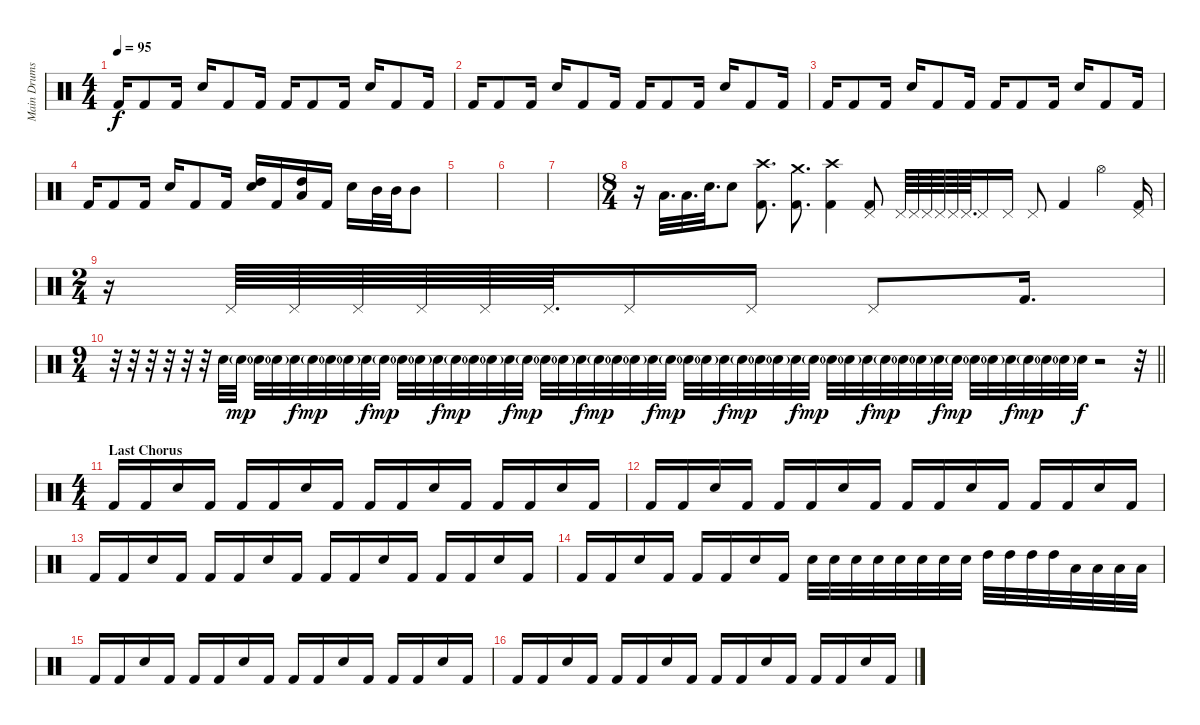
\track ("Main Drums" "Main Drums") {instrument percussion}
\staff {score}
\articulation defaults
\ts (4 4)
\tempo 95
\clef neutral
\ks c "Kick (hit) 2".16{dy f} "Kick (hit) 2".8 "Kick (hit) 2".16 "Snare (hit) 2".16 "Kick (hit) 2".8 "Kick (hit) 2".16 "Kick (hit) 2".16 "Kick (hit) 2".8 "Kick (hit) 2".16 "Snare (hit) 2".16 "Kick (hit) 2".8 "Kick (hit) 2".16
|
"Kick (hit) 2".16 "Kick (hit) 2".8 "Kick (hit) 2".16 "Snare (hit) 2".16 "Kick (hit) 2".8 "Kick (hit) 2".16 "Kick (hit) 2".16 "Kick (hit) 2".8 "Kick (hit) 2".16 "Snare (hit) 2".16 "Kick (hit) 2".8 "Kick (hit) 2".16 |
"Kick (hit) 2".16 "Kick (hit) 2".8 "Kick (hit) 2".16 "Snare (hit) 2".16 "Kick (hit) 2".8 "Kick (hit) 2".16 "Kick (hit) 2".16 "Kick (hit) 2".8 "Kick (hit) 2".16 "Snare (hit) 2".16 "Kick (hit) 2".8 "Kick (hit) 2".16 |
"Kick (hit) 2".16 "Kick (hit) 2".8 "Kick (hit) 2".16 "Snare (hit) 2".16 "Kick (hit) 2".8 "Kick (hit) 2".16 ("High Tom (hit)" "Snare (hit) 2").16 "Kick (hit) 2".16 ("High Tom (hit)" "Low Tom (hit)").16 "Kick (hit) 2".16 "Snare (hit) 2".16 "Mid Tom (hit)".32 "Mid Tom (hit)".32 "Mid Tom (hit)".8 |
|
|
|
\ts (8 4)
r.16 "Low Floor Tom (hit)".32{d} "Low Floor Tom (hit)".32{d} "Snare (hit) 2".32{d} "Snare (hit) 2".8 ("Crash high (hit)" "Kick (hit) 2").8{d} ("Crash medium (hit)" "Kick (hit) 2").8{d} ("Crash high (hit)" "Kick (hit) 2").4 ("Kick (hit) 2" "Pedal Hi-Hat (hit)").8 "Pedal Hi-Hat (hit)".64 "Pedal Hi-Hat (hit)".64 "Pedal Hi-Hat (hit)".64 "Pedal Hi-Hat (hit)".64 "Pedal Hi-Hat (hit)".64 "Pedal Hi-Hat (hit)".64{d} "Pedal Hi-Hat (hit)".16 "Pedal Hi-Hat (hit)".16 "Pedal Hi-Hat (hit)".8 "Kick (hit) 2".4 "Hi-Hat (open)".4 ("Pedal Hi-Hat (hit)" "Kick (hit) 2").16 |
\ts (2 4)
r.16 "Pedal Hi-Hat (hit)".64 "Pedal Hi-Hat (hit)".64 "Pedal Hi-Hat (hit)".64 "Pedal Hi-Hat (hit)".64 "Pedal Hi-Hat (hit)".64 "Pedal Hi-Hat (hit)".64{d} "Pedal Hi-Hat (hit)".16 "Pedal Hi-Hat (hit)".16 "Pedal Hi-Hat (hit)".8 "Kick (hit) 2".16{d} |
\ts (9 4)
\barLineRight lightlight
r.32 r.32 r.32 r.32 r.32 r.32 "Snare (hit) 2".32 "Snare (hit) 2"{g}.32{dy mp} "Snare (hit) 2"{g}.32 "Snare (hit) 2"{g}.32 "Snare (hit) 2".32{dy f} "Snare (hit) 2"{g}.32{dy mp} "Snare (hit) 2"{g}.32 "Snare (hit) 2"{g}.32 "Snare (hit) 2".32{dy f} "Snare (hit) 2"{g}.32{dy mp} "Snare (hit) 2"{g}.32 "Snare (hit) 2"{g}.32 "Snare (hit) 2".32{dy f} "Snare (hit) 2"{g}.32{dy mp} "Snare (hit) 2"{g}.32 "Snare (hit) 2"{g}.32 "Snare (hit) 2".32{dy f} "Snare (hit) 2"{g}.32{dy mp} "Snare (hit) 2"{g}.32 "Snare (hit) 2"{g}.32 "Snare (hit) 2".32{dy f} "Snare (hit) 2"{g}.32{dy mp} "Snare (hit) 2"{g}.32 "Snare (hit) 2"{g}.32 "Snare (hit) 2".32{dy f} "Snare (hit) 2"{g}.32{dy mp} "Snare (hit) 2"{g}.32 "Snare (hit) 2"{g}.32 "Snare (hit) 2".32{dy f} "Snare (hit) 2"{g}.32{dy mp} "Snare (hit) 2"{g}.32 "Snare (hit) 2"{g}.32 "Snare (hit) 2".32{dy f} "Snare (hit) 2"{g}.32{dy mp} "Snare (hit) 2"{g}.32 "Snare (hit) 2"{g}.32 "Snare (hit) 2".32{dy f} "Snare (hit) 2"{g}.32{dy mp} "Snare (hit) 2"{g}.32 "Snare (hit) 2"{g}.32 "Snare (hit) 2".32{dy f} "Snare (hit) 2"{g}.32{dy mp} "Snare (hit) 2"{g}.32 "Snare (hit) 2"{g}.32 "Snare (hit) 2".32{dy f} "Snare (hit) 2"{g}.32{dy mp} "Snare (hit) 2"{g}.32 "Snare (hit) 2"{g}.32 "Snare (hit) 2".32{dy f} r.2 r.32 |
\ts (4 4)
\section ("" "Last Chorus")
"Kick (hit) 2".16 "Kick (hit) 2".16 "Snare (hit) 2".16 "Kick (hit) 2".16 "Kick (hit) 2".16 "Kick (hit) 2".16 "Snare (hit) 2".16 "Kick (hit) 2".16 "Kick (hit) 2".16 "Kick (hit) 2".16 "Snare (hit) 2".16 "Kick (hit) 2".16 "Kick (hit) 2".16 "Kick (hit) 2".16 "Snare (hit) 2".16 "Kick (hit) 2".16 |
"Kick (hit) 2".16 "Kick (hit) 2".16 "Snare (hit) 2".16 "Kick (hit) 2".16 "Kick (hit) 2".16 "Kick (hit) 2".16 "Snare (hit) 2".16 "Kick (hit) 2".16 "Kick (hit) 2".16 "Kick (hit) 2".16 "Snare (hit) 2".16 "Kick (hit) 2".16 "Kick (hit) 2".16 "Kick (hit) 2".16 "Snare (hit) 2".16 "Kick (hit) 2".16 |
"Kick (hit) 2".16 "Kick (hit) 2".16 "Snare (hit) 2".16 "Kick (hit) 2".16 "Kick (hit) 2".16 "Kick (hit) 2".16 "Snare (hit) 2".16 "Kick (hit) 2".16 "Kick (hit) 2".16 "Kick (hit) 2".16 "Snare (hit) 2".16 "Kick (hit) 2".16 "Kick (hit) 2".16 "Kick (hit) 2".16 "Snare (hit) 2".16 "Kick (hit) 2".16 |
"Kick (hit) 2".16 "Kick (hit) 2".16 "Snare (hit) 2".16 "Kick (hit) 2".16 "Kick (hit) 2".16 "Kick (hit) 2".16 "Snare (hit) 2".16 "Kick (hit) 2".16 "Snare (hit) 2".32 "Snare (hit) 2".32 "Snare (hit) 2".32 "Snare (hit) 2".32 "Snare (hit) 2".32 "Snare (hit) 2".32 "Snare (hit) 2".32 "Snare (hit) 2".32 "High Tom (hit)".32 "High Tom (hit)".32 "High Tom (hit)".32 "High Tom (hit)".32 "Low Floor Tom (hit)".32 "Low Floor Tom (hit)".32 "Low Floor Tom (hit)".32 "Low Floor Tom (hit)".32 |
"Kick (hit) 2".16 "Kick (hit) 2".16 "Snare (hit) 2".16 "Kick (hit) 2".16 "Kick (hit) 2".16 "Kick (hit) 2".16 "Snare (hit) 2".16 "Kick (hit) 2".16 "Kick (hit) 2".16 "Kick (hit) 2".16 "Snare (hit) 2".16 "Kick (hit) 2".16 "Kick (hit) 2".16 "Kick (hit) 2".16 "Snare (hit) 2".16 "Kick (hit) 2".16 |
"Kick (hit) 2".16 "Kick (hit) 2".16 "Snare (hit) 2".16 "Kick (hit) 2".16 "Kick (hit) 2".16 "Kick (hit) 2".16 "Snare (hit) 2".16 "Kick (hit) 2".16 "Kick (hit) 2".16 "Kick (hit) 2".16 "Snare (hit) 2".16 "Kick (hit) 2".16 "Kick (hit) 2".16 "Kick (hit) 2".16 "Snare (hit) 2".16 "Kick (hit) 2".16
